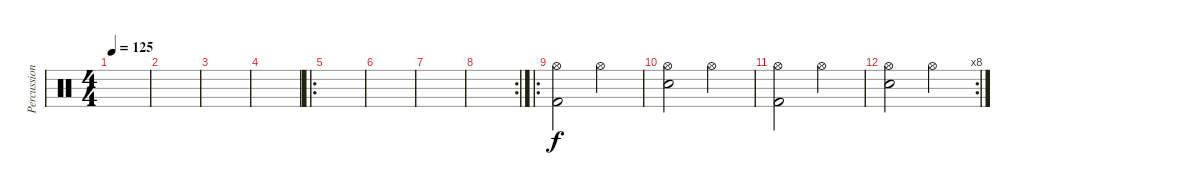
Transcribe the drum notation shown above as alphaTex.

\track ("Percussions" "Percussion") {instrument percussion}
\staff {score}
\articulation defaults
\ts (4 4)
\tempo 125
\clef neutral
\ks c
|
|
|
|
\ro
|
|
|
\rc 2
|
\ro
("Hi-Hat (open)" "Kick (hit) 2").2 "Hi-Hat (open)".2 |
("Hi-Hat (open)" "Snare (hit) 2").2 "Hi-Hat (open)".2 |
("Hi-Hat (open)" "Kick (hit) 2").2 "Hi-Hat (open)".2 |
\rc 8
("Hi-Hat (open)" "Snare (hit) 2").2 "Hi-Hat (open)".2
